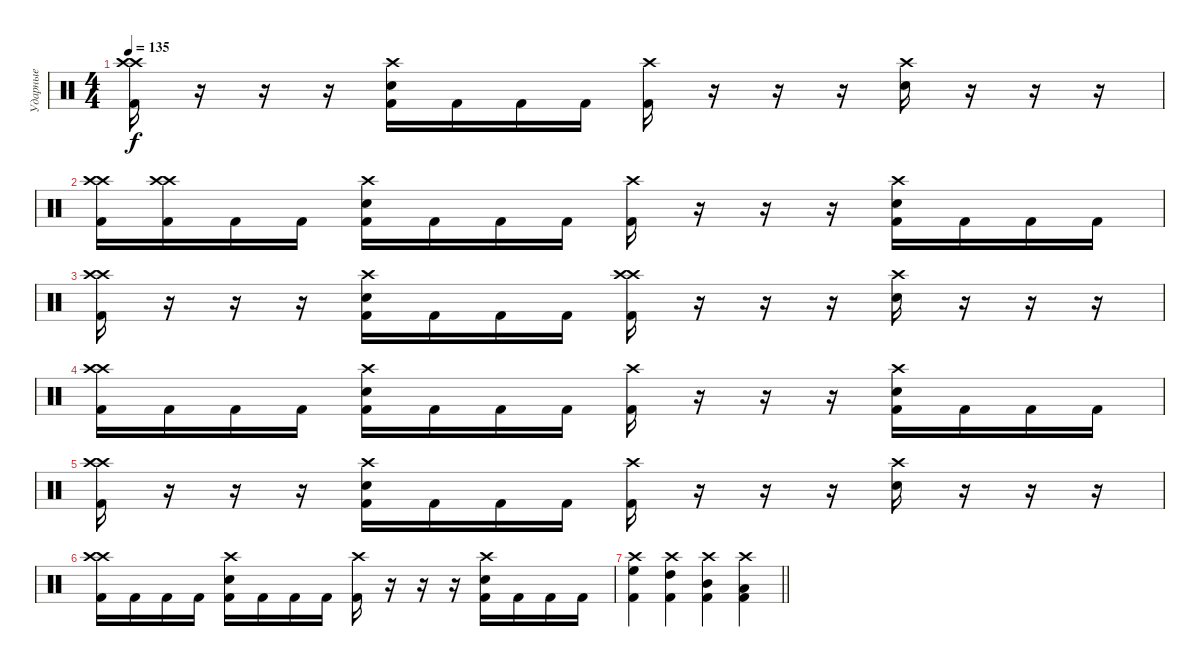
\track ("Ударные" "Ударные") {instrument percussion}
\staff {score}
\articulation defaults
\ts (4 4)
\tempo 135
\clef neutral
\ks c
("Crash high (hit)" "Crash high (hit)" "Kick (hit) 2").16{dy f} r.16 r.16 r.16 ("Crash high (hit)" "Electric Snare (hit)" "Kick (hit) 2").16 "Kick (hit) 2".16 "Kick (hit) 2".16 "Kick (hit) 2".16 ("Crash high (hit)" "Kick (hit) 2").16 r.16 r.16 r.16 ("Crash high (hit)" "Electric Snare (hit)").16 r.16 r.16 r.16 |
("Crash high (hit)" "Crash high (hit)" "Kick (hit) 2").16 ("Crash high (hit)" "Crash high (hit)" "Kick (hit) 2").16 "Kick (hit) 2".16 "Kick (hit) 2".16 ("Crash high (hit)" "Electric Snare (hit)" "Kick (hit) 2").16 "Kick (hit) 2".16 "Kick (hit) 2".16 "Kick (hit) 2".16 ("Crash high (hit)" "Kick (hit) 2").16 r.16 r.16 r.16 ("Crash high (hit)" "Electric Snare (hit)" "Kick (hit) 2").16 "Kick (hit) 2".16 "Kick (hit) 2".16 "Kick (hit) 2".16 |
("Crash high (hit)" "Crash high (hit)" "Kick (hit) 2").16 r.16 r.16 r.16 ("Crash high (hit)" "Electric Snare (hit)" "Kick (hit) 2").16 "Kick (hit) 2".16 "Kick (hit) 2".16 "Kick (hit) 2".16 ("Crash high (hit)" "Crash high (hit)" "Kick (hit) 2").16 r.16 r.16 r.16 ("Crash high (hit)" "Electric Snare (hit)").16 r.16 r.16 r.16 |
("Crash high (hit)" "Crash high (hit)" "Kick (hit) 2").16 "Kick (hit) 2".16 "Kick (hit) 2".16 "Kick (hit) 2".16 ("Crash high (hit)" "Electric Snare (hit)" "Kick (hit) 2").16 "Kick (hit) 2".16 "Kick (hit) 2".16 "Kick (hit) 2".16 ("Crash high (hit)" "Kick (hit) 2").16 r.16 r.16 r.16 ("Crash high (hit)" "Electric Snare (hit)" "Kick (hit) 2").16 "Kick (hit) 2".16 "Kick (hit) 2".16 "Kick (hit) 2".16 |
("Crash high (hit)" "Crash high (hit)" "Kick (hit) 2").16 r.16 r.16 r.16 ("Crash high (hit)" "Electric Snare (hit)" "Kick (hit) 2").16 "Kick (hit) 2".16 "Kick (hit) 2".16 "Kick (hit) 2".16 ("Crash high (hit)" "Kick (hit) 2").16 r.16 r.16 r.16 ("Crash high (hit)" "Electric Snare (hit)").16 r.16 r.16 r.16 |
("Crash high (hit)" "Crash high (hit)" "Kick (hit) 2").16 "Kick (hit) 2".16 "Kick (hit) 2".16 "Kick (hit) 2".16 ("Crash high (hit)" "Electric Snare (hit)" "Kick (hit) 2").16 "Kick (hit) 2".16 "Kick (hit) 2".16 "Kick (hit) 2".16 ("Crash high (hit)" "Kick (hit) 2").16 r.16 r.16 r.16 ("Crash high (hit)" "Electric Snare (hit)" "Kick (hit) 2").16 "Kick (hit) 2".16 "Kick (hit) 2".16 "Kick (hit) 2".16 |
\barLineRight lightlight
("Crash high (hit)" "High Floor Tom (hit)" "Kick (hit) 2").4 ("Crash high (hit)" "High Tom (hit)" "Kick (hit) 2").4 ("Crash high (hit)" "Mid Tom (hit)" "Kick (hit) 2").4 ("Crash high (hit)" "Low Tom (hit)" "Kick (hit) 2").4
